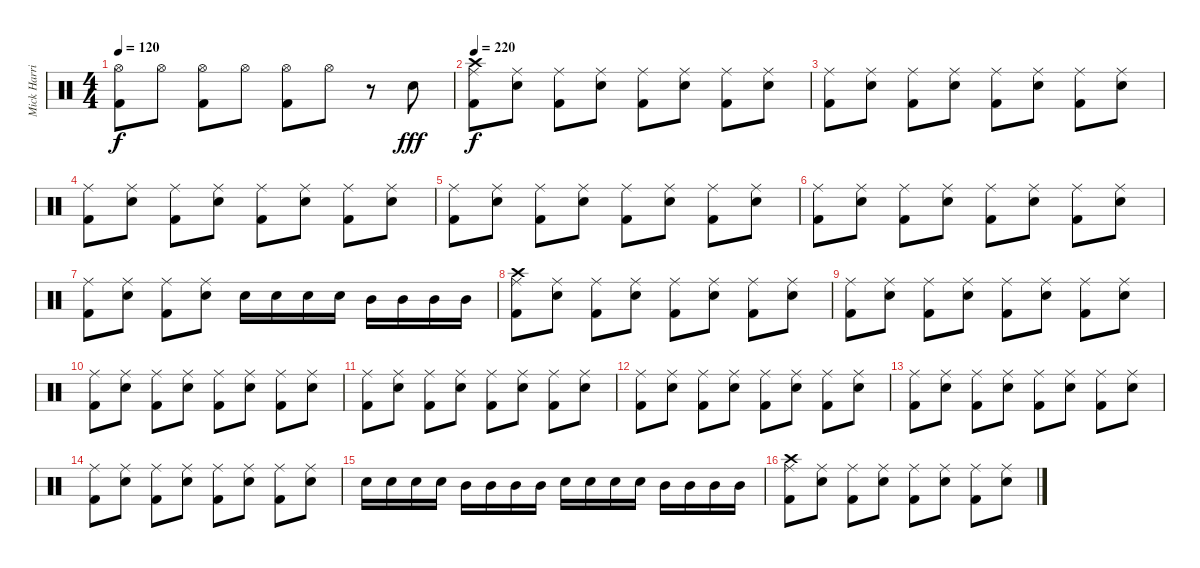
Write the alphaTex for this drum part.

\track ("Mick Harris (Drums)" "Mick Harri") {instrument percussion}
\staff {score}
\articulation defaults
\ts (4 4)
\tempo 120
\clef neutral
\ks c
("Kick (hit) 2" "Hi-Hat (open)").8{dy f} "Hi-Hat (open)".8{volume 0} ("Kick (hit) 2" "Hi-Hat (open)").8{volume 16} "Hi-Hat (open)".8{volume 0} ("Kick (hit) 2" "Hi-Hat (open)").8{volume 16} "Hi-Hat (open)".8{volume 0} r.8 "Electric Snare (hit)".8{dy fff volume 16} |
\tempo 220
("Kick (hit) 2" "Crash high (hit)" "Ride (middle)").8{dy f} ("Electric Snare (hit)" "Ride (middle)").8 ("Kick (hit) 2" "Ride (middle)").8 ("Electric Snare (hit)" "Ride (middle)").8 ("Kick (hit) 2" "Ride (middle)").8 ("Electric Snare (hit)" "Ride (middle)").8 ("Kick (hit) 2" "Ride (middle)").8 ("Electric Snare (hit)" "Ride (middle)").8 |
("Kick (hit) 2" "Ride (middle)").8 ("Electric Snare (hit)" "Ride (middle)").8 ("Kick (hit) 2" "Ride (middle)").8 ("Electric Snare (hit)" "Ride (middle)").8 ("Kick (hit) 2" "Ride (middle)").8 ("Electric Snare (hit)" "Ride (middle)").8 ("Kick (hit) 2" "Ride (middle)").8 ("Electric Snare (hit)" "Ride (middle)").8 |
("Kick (hit) 2" "Ride (middle)").8 ("Electric Snare (hit)" "Ride (middle)").8 ("Kick (hit) 2" "Ride (middle)").8 ("Electric Snare (hit)" "Ride (middle)").8 ("Kick (hit) 2" "Ride (middle)").8 ("Electric Snare (hit)" "Ride (middle)").8 ("Kick (hit) 2" "Ride (middle)").8 ("Electric Snare (hit)" "Ride (middle)").8 |
("Kick (hit) 2" "Ride (middle)").8 ("Electric Snare (hit)" "Ride (middle)").8 ("Kick (hit) 2" "Ride (middle)").8 ("Electric Snare (hit)" "Ride (middle)").8 ("Kick (hit) 2" "Ride (middle)").8 ("Electric Snare (hit)" "Ride (middle)").8 ("Kick (hit) 2" "Ride (middle)").8 ("Electric Snare (hit)" "Ride (middle)").8 |
("Kick (hit) 2" "Ride (middle)").8 ("Electric Snare (hit)" "Ride (middle)").8 ("Kick (hit) 2" "Ride (middle)").8 ("Electric Snare (hit)" "Ride (middle)").8 ("Kick (hit) 2" "Ride (middle)").8 ("Electric Snare (hit)" "Ride (middle)").8 ("Kick (hit) 2" "Ride (middle)").8 ("Electric Snare (hit)" "Ride (middle)").8 |
("Kick (hit) 2" "Ride (middle)").8 ("Electric Snare (hit)" "Ride (middle)").8 ("Kick (hit) 2" "Ride (middle)").8 ("Electric Snare (hit)" "Ride (middle)").8 "Electric Snare (hit)".16 "Electric Snare (hit)".16 "Electric Snare (hit)".16 "Electric Snare (hit)".16 "Mid Tom (hit)".16 "Mid Tom (hit)".16 "Mid Tom (hit)".16 "Mid Tom (hit)".16 |
("Kick (hit) 2" "Crash high (hit)" "Ride (middle)").8 ("Electric Snare (hit)" "Ride (middle)").8 ("Kick (hit) 2" "Ride (middle)").8 ("Electric Snare (hit)" "Ride (middle)").8 ("Kick (hit) 2" "Ride (middle)").8 ("Electric Snare (hit)" "Ride (middle)").8 ("Kick (hit) 2" "Ride (middle)").8 ("Electric Snare (hit)" "Ride (middle)").8 |
("Kick (hit) 2" "Ride (middle)").8 ("Electric Snare (hit)" "Ride (middle)").8 ("Kick (hit) 2" "Ride (middle)").8 ("Electric Snare (hit)" "Ride (middle)").8 ("Kick (hit) 2" "Ride (middle)").8 ("Electric Snare (hit)" "Ride (middle)").8 ("Kick (hit) 2" "Ride (middle)").8 ("Electric Snare (hit)" "Ride (middle)").8 |
("Kick (hit) 2" "Ride (middle)").8 ("Electric Snare (hit)" "Ride (middle)").8 ("Kick (hit) 2" "Ride (middle)").8 ("Electric Snare (hit)" "Ride (middle)").8 ("Kick (hit) 2" "Ride (middle)").8 ("Electric Snare (hit)" "Ride (middle)").8 ("Kick (hit) 2" "Ride (middle)").8 ("Electric Snare (hit)" "Ride (middle)").8 |
("Kick (hit) 2" "Ride (middle)").8 ("Electric Snare (hit)" "Ride (middle)").8 ("Kick (hit) 2" "Ride (middle)").8 ("Electric Snare (hit)" "Ride (middle)").8 ("Kick (hit) 2" "Ride (middle)").8 ("Electric Snare (hit)" "Ride (middle)").8 ("Kick (hit) 2" "Ride (middle)").8 ("Electric Snare (hit)" "Ride (middle)").8 |
("Kick (hit) 2" "Ride (middle)").8 ("Electric Snare (hit)" "Ride (middle)").8 ("Kick (hit) 2" "Ride (middle)").8 ("Electric Snare (hit)" "Ride (middle)").8 ("Kick (hit) 2" "Ride (middle)").8 ("Electric Snare (hit)" "Ride (middle)").8 ("Kick (hit) 2" "Ride (middle)").8 ("Electric Snare (hit)" "Ride (middle)").8 |
("Kick (hit) 2" "Ride (middle)").8 ("Electric Snare (hit)" "Ride (middle)").8 ("Kick (hit) 2" "Ride (middle)").8 ("Electric Snare (hit)" "Ride (middle)").8 ("Kick (hit) 2" "Ride (middle)").8 ("Electric Snare (hit)" "Ride (middle)").8 ("Kick (hit) 2" "Ride (middle)").8 ("Electric Snare (hit)" "Ride (middle)").8 |
("Kick (hit) 2" "Ride (middle)").8 ("Electric Snare (hit)" "Ride (middle)").8 ("Kick (hit) 2" "Ride (middle)").8 ("Electric Snare (hit)" "Ride (middle)").8 ("Kick (hit) 2" "Ride (middle)").8 ("Electric Snare (hit)" "Ride (middle)").8 ("Kick (hit) 2" "Ride (middle)").8 ("Electric Snare (hit)" "Ride (middle)").8 |
"Electric Snare (hit)".16 "Electric Snare (hit)".16 "Electric Snare (hit)".16 "Electric Snare (hit)".16 "Mid Tom (hit)".16 "Mid Tom (hit)".16 "Mid Tom (hit)".16 "Mid Tom (hit)".16 "Electric Snare (hit)".16 "Electric Snare (hit)".16 "Electric Snare (hit)".16 "Electric Snare (hit)".16 "Mid Tom (hit)".16 "Mid Tom (hit)".16 "Mid Tom (hit)".16 "Mid Tom (hit)".16 |
("Kick (hit) 2" "Crash high (hit)" "Ride (middle)").8 ("Electric Snare (hit)" "Ride (middle)").8 ("Kick (hit) 2" "Ride (middle)").8 ("Electric Snare (hit)" "Ride (middle)").8 ("Kick (hit) 2" "Ride (middle)").8 ("Electric Snare (hit)" "Ride (middle)").8 ("Kick (hit) 2" "Ride (middle)").8 ("Electric Snare (hit)" "Ride (middle)").8
